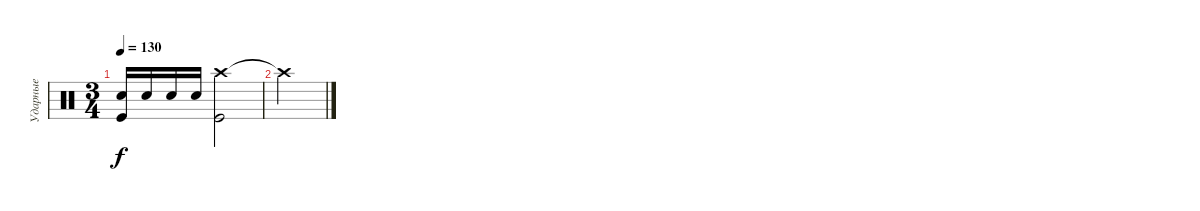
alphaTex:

\track ("Ударные" "Ударные") {instrument percussion}
\staff {score}
\articulation defaults
\ts (3 4)
\tempo 130
\clef neutral
\ks c
("Snare (hit) 2" "Kick (hit)").16{dy f} "Snare (hit) 2".16 "Snare (hit) 2".16 "Snare (hit) 2".16 ("Crash high (hit)" "Kick (hit)").2 |
"Crash high (hit)"{t}.2
